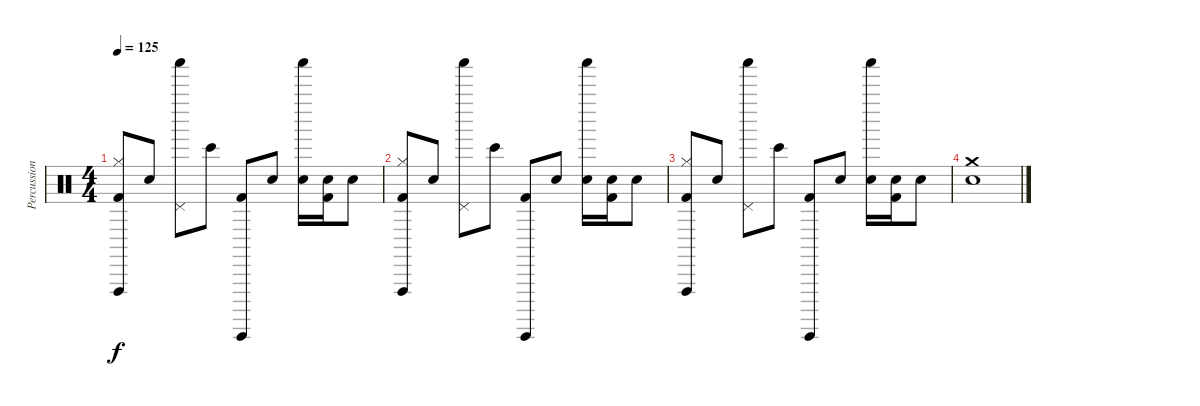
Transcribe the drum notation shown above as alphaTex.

\track ("Percussion" "Percussion") {instrument percussion}
\staff {score}
\articulation defaults
\ts (4 4)
\tempo 125
\clef neutral
\ks c
("Kick (hit) 2" "Hi-Hat (closed)" "Vibraslap (hit)").8{dy f} "Electric Snare (hit)".8 ("Pedal Hi-Hat (hit)" "Shaker (hit)").8 "Bongo High (hit)".8 ("Kick (hit) 2" "Guiro (hit)").8 "Electric Snare (hit)".8 ("Electric Snare (hit)" "Shaker (hit)").16 ("Kick (hit) 2" "Electric Snare (hit)").16 "Electric Snare (hit)".8 |
("Kick (hit) 2" "Hi-Hat (closed)" "Vibraslap (hit)").8 "Electric Snare (hit)".8 ("Pedal Hi-Hat (hit)" "Shaker (hit)").8 "Bongo High (hit)".8 ("Kick (hit) 2" "Guiro (hit)").8 "Electric Snare (hit)".8 ("Electric Snare (hit)" "Shaker (hit)").16 ("Kick (hit) 2" "Electric Snare (hit)").16 "Electric Snare (hit)".8 |
("Kick (hit) 2" "Hi-Hat (closed)" "Vibraslap (hit)").8 "Electric Snare (hit)".8 ("Pedal Hi-Hat (hit)" "Shaker (hit)").8 "Bongo High (hit)".8 ("Kick (hit) 2" "Guiro (hit)").8 "Electric Snare (hit)".8 ("Electric Snare (hit)" "Shaker (hit)").16 ("Kick (hit) 2" "Electric Snare (hit)").16 "Electric Snare (hit)".8 |
("Electric Snare (hit)" "Crash medium (hit)").1
